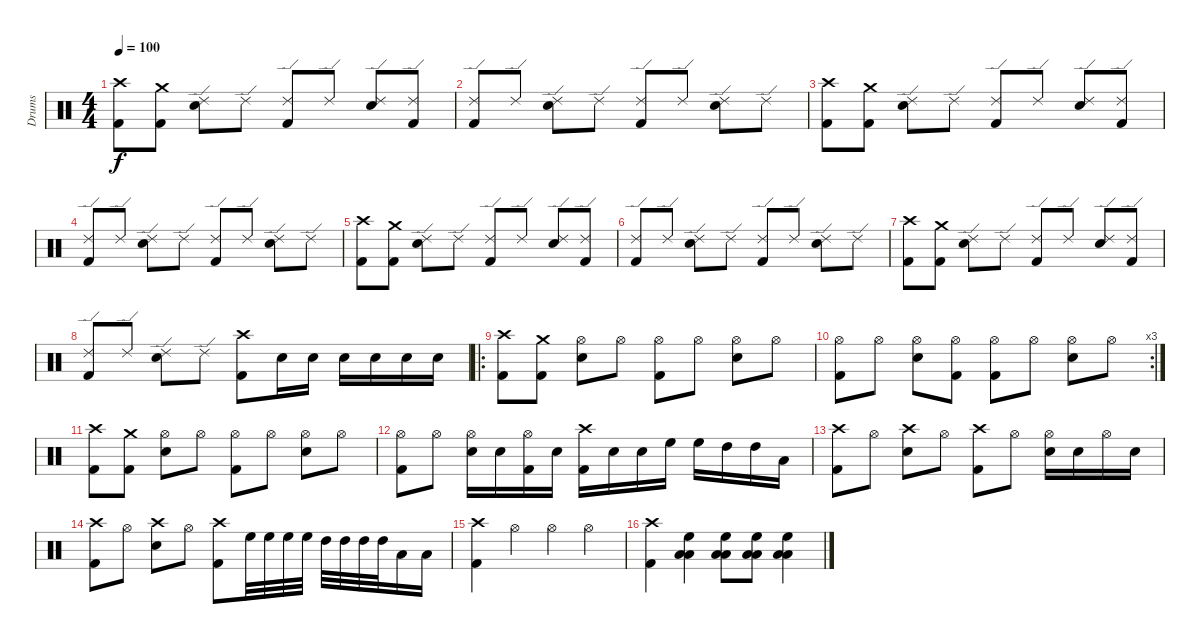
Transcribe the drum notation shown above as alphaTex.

\track ("Drums" "Drums") {instrument percussion}
\staff {score}
\articulation defaults
\ts (4 4)
\tempo 100
\clef neutral
\ks c
("Crash high (hit)" "Kick (hit) 2").8{dy f} ("Crash medium (hit)" "Kick (hit) 2").8 ("Ride (edge) 2" "Snare (hit) 2").8 "Ride (edge) 2".8 ("Ride (edge) 2" "Kick (hit) 2").8 "Ride (edge) 2".8 ("Ride (edge) 2" "Snare (hit) 2").8 ("Ride (edge) 2" "Kick (hit) 2").8 |
("Ride (edge) 2" "Kick (hit) 2").8 "Ride (edge) 2".8 ("Ride (edge) 2" "Snare (hit) 2").8 "Ride (edge) 2".8 ("Ride (edge) 2" "Kick (hit) 2").8 "Ride (edge) 2".8 ("Ride (edge) 2" "Snare (hit) 2").8 "Ride (edge) 2".8 |
("Crash high (hit)" "Kick (hit) 2").8 ("Crash medium (hit)" "Kick (hit) 2").8 ("Ride (edge) 2" "Snare (hit) 2").8 "Ride (edge) 2".8 ("Ride (edge) 2" "Kick (hit) 2").8 "Ride (edge) 2".8 ("Ride (edge) 2" "Snare (hit) 2").8 ("Ride (edge) 2" "Kick (hit) 2").8 |
("Ride (edge) 2" "Kick (hit) 2").8 "Ride (edge) 2".8 ("Ride (edge) 2" "Snare (hit) 2").8 "Ride (edge) 2".8 ("Ride (edge) 2" "Kick (hit) 2").8 "Ride (edge) 2".8 ("Ride (edge) 2" "Snare (hit) 2").8 "Ride (edge) 2".8 |
("Crash high (hit)" "Kick (hit) 2").8 ("Crash medium (hit)" "Kick (hit) 2").8 ("Ride (edge) 2" "Snare (hit) 2").8 "Ride (edge) 2".8 ("Ride (edge) 2" "Kick (hit) 2").8 "Ride (edge) 2".8 ("Ride (edge) 2" "Snare (hit) 2").8 ("Ride (edge) 2" "Kick (hit) 2").8 |
("Ride (edge) 2" "Kick (hit) 2").8 "Ride (edge) 2".8 ("Ride (edge) 2" "Snare (hit) 2").8 "Ride (edge) 2".8 ("Ride (edge) 2" "Kick (hit) 2").8 "Ride (edge) 2".8 ("Ride (edge) 2" "Snare (hit) 2").8 "Ride (edge) 2".8 |
("Crash high (hit)" "Kick (hit) 2").8 ("Crash medium (hit)" "Kick (hit) 2").8 ("Ride (edge) 2" "Snare (hit) 2").8 "Ride (edge) 2".8 ("Ride (edge) 2" "Kick (hit) 2").8 "Ride (edge) 2".8 ("Ride (edge) 2" "Snare (hit) 2").8 ("Ride (edge) 2" "Kick (hit) 2").8 |
("Ride (edge) 2" "Kick (hit) 2").8 "Ride (edge) 2".8 ("Ride (edge) 2" "Snare (hit) 2").8 "Ride (edge) 2".8 ("Crash high (hit)" "Kick (hit) 2").8 "Snare (hit) 2".16 "Snare (hit) 2".16 "Snare (hit) 2".16 "Snare (hit) 2".16 "Snare (hit) 2".16 "Snare (hit) 2".16 |
\ro
("Crash high (hit)" "Kick (hit) 2").8 ("Crash medium (hit)" "Kick (hit) 2").8 ("Hi-Hat (open)" "Snare (hit) 2").8 "Hi-Hat (open)".8 ("Hi-Hat (open)" "Kick (hit) 2").8 "Hi-Hat (open)".8 ("Hi-Hat (open)" "Snare (hit) 2").8 "Hi-Hat (open)".8 |
\rc 3
("Hi-Hat (open)" "Kick (hit) 2").8 "Hi-Hat (open)".8 ("Hi-Hat (open)" "Snare (hit) 2").8 ("Hi-Hat (open)" "Kick (hit) 2").8 ("Hi-Hat (open)" "Kick (hit) 2").8 "Hi-Hat (open)".8 ("Hi-Hat (open)" "Snare (hit) 2").8 "Hi-Hat (open)".8 |
("Crash high (hit)" "Kick (hit) 2").8 ("Crash medium (hit)" "Kick (hit) 2").8 ("Hi-Hat (open)" "Snare (hit) 2").8 "Hi-Hat (open)".8 ("Hi-Hat (open)" "Kick (hit) 2").8 "Hi-Hat (open)".8 ("Hi-Hat (open)" "Snare (hit) 2").8 "Hi-Hat (open)".8 |
("Hi-Hat (open)" "Kick (hit) 2").8 "Hi-Hat (open)".8 ("Hi-Hat (open)" "Snare (hit) 2").16 "Snare (hit) 2".16 ("Hi-Hat (open)" "Kick (hit) 2").16 "Snare (hit) 2".16 ("Crash high (hit)" "Kick (hit) 2").16 "Snare (hit) 2".16 "Snare (hit) 2".16 "High Floor Tom (hit)".16 "High Floor Tom (hit)".16 "High Tom (hit)".16 "High Tom (hit)".16 "Low Tom (hit)".16 |
("Crash high (hit)" "Kick (hit) 2").8 "Hi-Hat (open)".8 ("Crash high (hit)" "Snare (hit) 2").8 "Hi-Hat (open)".8 ("Crash high (hit)" "Kick (hit) 2").8 "Hi-Hat (open)".8 ("Hi-Hat (open)" "Snare (hit) 2").16 "Snare (hit) 2".16 "Hi-Hat (open)".16 "Snare (hit) 2".16 |
("Crash high (hit)" "Kick (hit) 2").8 "Hi-Hat (open)".8 ("Crash high (hit)" "Snare (hit) 2").8 "Hi-Hat (open)".8 ("Crash high (hit)" "Kick (hit) 2").8 "High Floor Tom (hit)".32 "High Floor Tom (hit)".32 "High Floor Tom (hit)".32 "High Floor Tom (hit)".32 "High Tom (hit)".32 "High Tom (hit)".32 "High Tom (hit)".32 "High Tom (hit)".32 "Low Tom (hit)".16 "Low Tom (hit)".16 |
("Crash high (hit)" "Kick (hit) 2").4 "Hi-Hat (open)".4 "Hi-Hat (open)".4 "Hi-Hat (open)".4 |
("Crash high (hit)" "Kick (hit) 2").4 ("High Floor Tom (hit)" "Low Tom (hit)" "Low Floor Tom (hit)").4 ("High Floor Tom (hit)" "Low Tom (hit)" "Low Floor Tom (hit)").8 ("High Floor Tom (hit)" "Low Tom (hit)" "Low Floor Tom (hit)").8 ("High Floor Tom (hit)" "Low Tom (hit)" "Low Floor Tom (hit)").4
